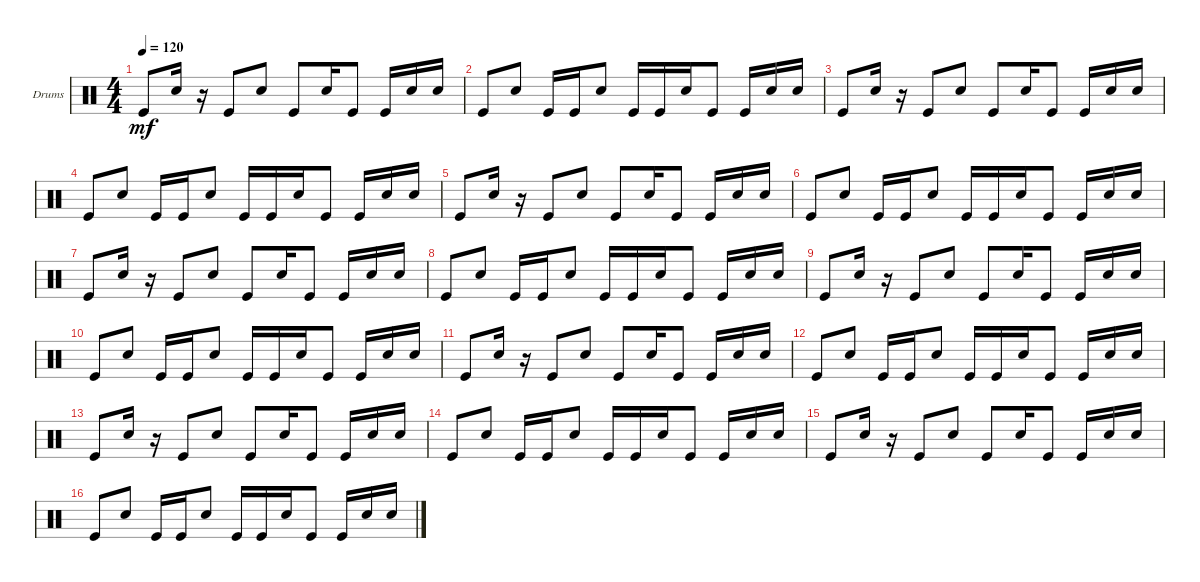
\defaultSystemsLayout 4
\bracketExtendMode groupsimilarinstruments
\firstSystemTrackNameOrientation horizontal
\otherSystemsTrackNameOrientation horizontal
\track ("Drumkit" "Drums") {instrument percussion}
\staff {score}
\articulation defaults
\ts (4 4)
\tempo 120
\clef neutral
\ks c "Kick (hit)".8{dy mf} "Snare (hit) 2".16
r.16 "Kick (hit)".8 "Snare (hit) 2".8 "Kick (hit)".8 "Snare (hit) 2".16 "Kick (hit)".8 "Kick (hit)".16 "Snare (hit) 2".16 "Snare (hit) 2".16 |
"Kick (hit)".8 "Snare (hit) 2".8 "Kick (hit)".16 "Kick (hit)".16 "Snare (hit) 2".8 "Kick (hit)".16 "Kick (hit)".16 "Snare (hit) 2".16 "Kick (hit)".8 "Kick (hit)".16 "Snare (hit) 2".16 "Snare (hit) 2".16 |
"Kick (hit)".8 "Snare (hit) 2".16 r.16 "Kick (hit)".8 "Snare (hit) 2".8 "Kick (hit)".8 "Snare (hit) 2".16 "Kick (hit)".8 "Kick (hit)".16 "Snare (hit) 2".16 "Snare (hit) 2".16 |
"Kick (hit)".8 "Snare (hit) 2".8 "Kick (hit)".16 "Kick (hit)".16 "Snare (hit) 2".8 "Kick (hit)".16 "Kick (hit)".16 "Snare (hit) 2".16 "Kick (hit)".8 "Kick (hit)".16 "Snare (hit) 2".16 "Snare (hit) 2".16 |
"Kick (hit)".8 "Snare (hit) 2".16 r.16 "Kick (hit)".8 "Snare (hit) 2".8 "Kick (hit)".8 "Snare (hit) 2".16 "Kick (hit)".8 "Kick (hit)".16 "Snare (hit) 2".16 "Snare (hit) 2".16 |
"Kick (hit)".8 "Snare (hit) 2".8 "Kick (hit)".16 "Kick (hit)".16 "Snare (hit) 2".8 "Kick (hit)".16 "Kick (hit)".16 "Snare (hit) 2".16 "Kick (hit)".8 "Kick (hit)".16 "Snare (hit) 2".16 "Snare (hit) 2".16 |
"Kick (hit)".8 "Snare (hit) 2".16 r.16 "Kick (hit)".8 "Snare (hit) 2".8 "Kick (hit)".8 "Snare (hit) 2".16 "Kick (hit)".8 "Kick (hit)".16 "Snare (hit) 2".16 "Snare (hit) 2".16 |
"Kick (hit)".8 "Snare (hit) 2".8 "Kick (hit)".16 "Kick (hit)".16 "Snare (hit) 2".8 "Kick (hit)".16 "Kick (hit)".16 "Snare (hit) 2".16 "Kick (hit)".8 "Kick (hit)".16 "Snare (hit) 2".16 "Snare (hit) 2".16 |
"Kick (hit)".8 "Snare (hit) 2".16 r.16 "Kick (hit)".8 "Snare (hit) 2".8 "Kick (hit)".8 "Snare (hit) 2".16 "Kick (hit)".8 "Kick (hit)".16 "Snare (hit) 2".16 "Snare (hit) 2".16 |
"Kick (hit)".8 "Snare (hit) 2".8 "Kick (hit)".16 "Kick (hit)".16 "Snare (hit) 2".8 "Kick (hit)".16 "Kick (hit)".16 "Snare (hit) 2".16 "Kick (hit)".8 "Kick (hit)".16 "Snare (hit) 2".16 "Snare (hit) 2".16 |
"Kick (hit)".8 "Snare (hit) 2".16 r.16 "Kick (hit)".8 "Snare (hit) 2".8 "Kick (hit)".8 "Snare (hit) 2".16 "Kick (hit)".8 "Kick (hit)".16 "Snare (hit) 2".16 "Snare (hit) 2".16 |
"Kick (hit)".8 "Snare (hit) 2".8 "Kick (hit)".16 "Kick (hit)".16 "Snare (hit) 2".8 "Kick (hit)".16 "Kick (hit)".16 "Snare (hit) 2".16 "Kick (hit)".8 "Kick (hit)".16 "Snare (hit) 2".16 "Snare (hit) 2".16 |
"Kick (hit)".8 "Snare (hit) 2".16 r.16 "Kick (hit)".8 "Snare (hit) 2".8 "Kick (hit)".8 "Snare (hit) 2".16 "Kick (hit)".8 "Kick (hit)".16 "Snare (hit) 2".16 "Snare (hit) 2".16 |
"Kick (hit)".8 "Snare (hit) 2".8 "Kick (hit)".16 "Kick (hit)".16 "Snare (hit) 2".8 "Kick (hit)".16 "Kick (hit)".16 "Snare (hit) 2".16 "Kick (hit)".8 "Kick (hit)".16 "Snare (hit) 2".16 "Snare (hit) 2".16 |
"Kick (hit)".8 "Snare (hit) 2".16 r.16 "Kick (hit)".8 "Snare (hit) 2".8 "Kick (hit)".8 "Snare (hit) 2".16 "Kick (hit)".8 "Kick (hit)".16 "Snare (hit) 2".16 "Snare (hit) 2".16 |
"Kick (hit)".8 "Snare (hit) 2".8 "Kick (hit)".16 "Kick (hit)".16 "Snare (hit) 2".8 "Kick (hit)".16 "Kick (hit)".16 "Snare (hit) 2".16 "Kick (hit)".8 "Kick (hit)".16 "Snare (hit) 2".16 "Snare (hit) 2".16
